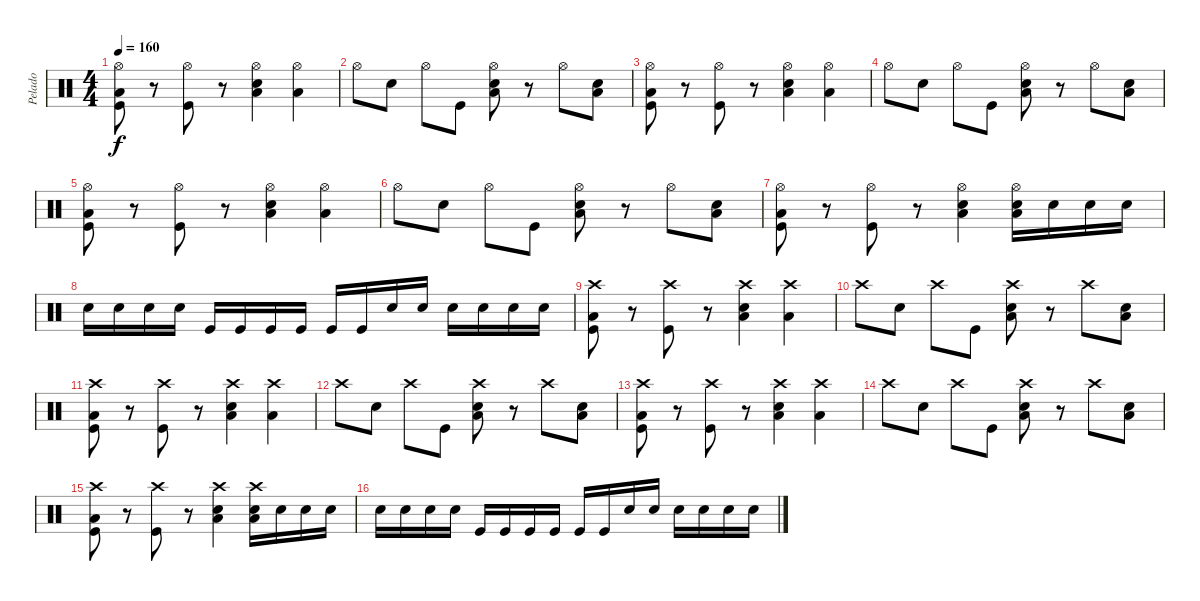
\track ("Pelado" "Pelado") {instrument percussion}
\staff {score}
\articulation defaults
\ts (4 4)
\tempo 160
\clef neutral
\ks c
("Hi-Hat (open)" "Kick (hit)" "Low Tom (hit)").8{dy f} r.8 ("Hi-Hat (open)" "Kick (hit)").8 r.8 ("Hi-Hat (open)" "Snare (hit) 2" "Low Tom (hit)").4 ("Hi-Hat (open)" "Low Tom (hit)").4 |
"Hi-Hat (open)".8 "Snare (hit) 2".8 "Hi-Hat (open)".8 "Kick (hit)".8 ("Hi-Hat (open)" "Snare (hit) 2" "Low Tom (hit)").8 r.8 "Hi-Hat (open)".8 ("Snare (hit) 2" "Low Tom (hit)").8 |
("Hi-Hat (open)" "Kick (hit)" "Low Tom (hit)").8 r.8 ("Hi-Hat (open)" "Kick (hit)").8 r.8 ("Hi-Hat (open)" "Snare (hit) 2" "Low Tom (hit)").4 ("Hi-Hat (open)" "Low Tom (hit)").4 |
"Hi-Hat (open)".8 "Snare (hit) 2".8 "Hi-Hat (open)".8 "Kick (hit)".8 ("Hi-Hat (open)" "Snare (hit) 2" "Low Tom (hit)").8 r.8 "Hi-Hat (open)".8 ("Snare (hit) 2" "Low Tom (hit)").8 |
("Hi-Hat (open)" "Kick (hit)" "Low Tom (hit)").8 r.8 ("Hi-Hat (open)" "Kick (hit)").8 r.8 ("Hi-Hat (open)" "Snare (hit) 2" "Low Tom (hit)").4 ("Hi-Hat (open)" "Low Tom (hit)").4 |
"Hi-Hat (open)".8 "Snare (hit) 2".8 "Hi-Hat (open)".8 "Kick (hit)".8 ("Hi-Hat (open)" "Snare (hit) 2" "Low Tom (hit)").8 r.8 "Hi-Hat (open)".8 ("Snare (hit) 2" "Low Tom (hit)").8 |
("Hi-Hat (open)" "Kick (hit)" "Low Tom (hit)").8 r.8 ("Hi-Hat (open)" "Kick (hit)").8 r.8 ("Hi-Hat (open)" "Snare (hit) 2" "Low Tom (hit)").4 ("Hi-Hat (open)" "Snare (hit) 2" "Low Tom (hit)").16 "Snare (hit) 2".16 "Snare (hit) 2".16 "Snare (hit) 2".16 |
"Snare (hit) 2".16 "Snare (hit) 2".16 "Snare (hit) 2".16 "Snare (hit) 2".16 "Kick (hit)".16 "Kick (hit)".16 "Kick (hit)".16 "Kick (hit)".16 "Kick (hit)".16 "Kick (hit)".16 "Snare (hit) 2".16 "Snare (hit) 2".16 "Snare (hit) 2".16 "Snare (hit) 2".16 "Snare (hit) 2".16 "Snare (hit) 2".16 |
("Crash high (hit)" "Kick (hit)" "Low Tom (hit)").8 r.8 ("Crash high (hit)" "Kick (hit)").8 r.8 ("Crash high (hit)" "Snare (hit) 2" "Low Tom (hit)").4 ("Crash high (hit)" "Low Tom (hit)").4 |
"Crash high (hit)".8 "Snare (hit) 2".8 "Crash high (hit)".8 "Kick (hit)".8 ("Crash high (hit)" "Snare (hit) 2" "Low Tom (hit)").8 r.8 "Crash high (hit)".8 ("Snare (hit) 2" "Low Tom (hit)").8 |
("Crash high (hit)" "Kick (hit)" "Low Tom (hit)").8 r.8 ("Crash high (hit)" "Kick (hit)").8 r.8 ("Crash high (hit)" "Snare (hit) 2" "Low Tom (hit)").4 ("Crash high (hit)" "Low Tom (hit)").4 |
"Crash high (hit)".8 "Snare (hit) 2".8 "Crash high (hit)".8 "Kick (hit)".8 ("Crash high (hit)" "Snare (hit) 2" "Low Tom (hit)").8 r.8 "Crash high (hit)".8 ("Snare (hit) 2" "Low Tom (hit)").8 |
("Crash high (hit)" "Kick (hit)" "Low Tom (hit)").8 r.8 ("Crash high (hit)" "Kick (hit)").8 r.8 ("Crash high (hit)" "Snare (hit) 2" "Low Tom (hit)").4 ("Crash high (hit)" "Low Tom (hit)").4 |
"Crash high (hit)".8 "Snare (hit) 2".8 "Crash high (hit)".8 "Kick (hit)".8 ("Crash high (hit)" "Snare (hit) 2" "Low Tom (hit)").8 r.8 "Crash high (hit)".8 ("Snare (hit) 2" "Low Tom (hit)").8 |
("Crash high (hit)" "Kick (hit)" "Low Tom (hit)").8 r.8 ("Crash high (hit)" "Kick (hit)").8 r.8 ("Crash high (hit)" "Snare (hit) 2" "Low Tom (hit)").4 ("Crash high (hit)" "Snare (hit) 2" "Low Tom (hit)").16 "Snare (hit) 2".16 "Snare (hit) 2".16 "Snare (hit) 2".16 |
"Snare (hit) 2".16 "Snare (hit) 2".16 "Snare (hit) 2".16 "Snare (hit) 2".16 "Kick (hit)".16 "Kick (hit)".16 "Kick (hit)".16 "Kick (hit)".16 "Kick (hit)".16 "Kick (hit)".16 "Snare (hit) 2".16 "Snare (hit) 2".16 "Snare (hit) 2".16 "Snare (hit) 2".16 "Snare (hit) 2".16 "Snare (hit) 2".16
